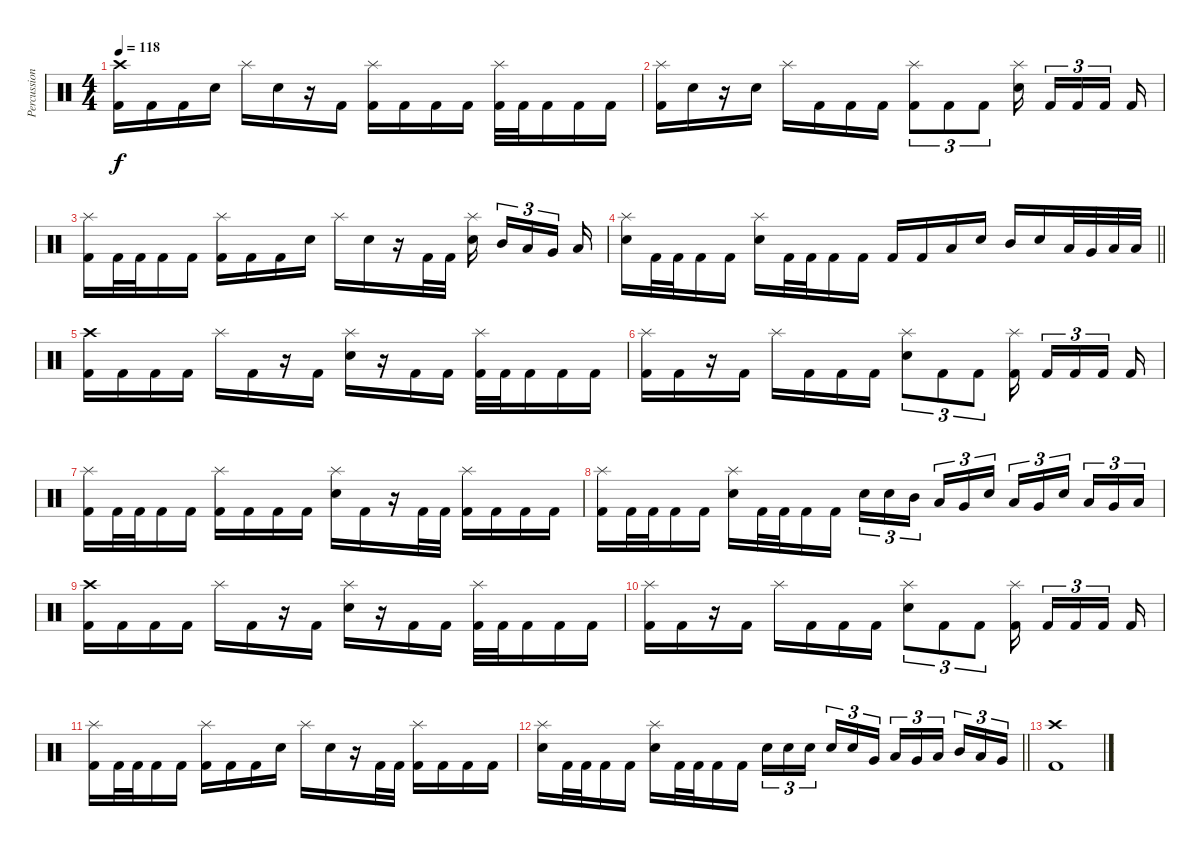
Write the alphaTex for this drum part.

\track ("Percussions" "Percussion") {instrument percussion}
\staff {score}
\articulation defaults
\ts (4 4)
\tempo 118
\clef neutral
\ks c
("Crash high (hit)" "Kick (hit) 2").16{dy f} "Kick (hit) 2".16 "Kick (hit) 2".16 "Electric Snare (hit)".16 "Splash (hit)".16 "Electric Snare (hit)".16 r.16 "Kick (hit) 2".16 ("Splash (hit)" "Kick (hit) 2").16 "Kick (hit) 2".16 "Kick (hit) 2".16 "Kick (hit) 2".16 ("Splash (hit)" "Kick (hit) 2").32 "Kick (hit) 2".32 "Kick (hit) 2".16 "Kick (hit) 2".16 "Kick (hit) 2".16 |
("Splash (hit)" "Kick (hit) 2").16 "Electric Snare (hit)".16 r.16 "Electric Snare (hit)".16 "Splash (hit)".16 "Kick (hit) 2".16 "Kick (hit) 2".16 "Kick (hit) 2".16 ("Splash (hit)" "Kick (hit) 2").8{tu (3 2)} "Kick (hit) 2".8{tu (3 2)} "Kick (hit) 2".8{tu (3 2)} ("Splash (hit)" "Electric Snare (hit)").16{beam splitsecondary} "Kick (hit) 2".16{tu (3 2)} "Kick (hit) 2".16{tu (3 2)} "Kick (hit) 2".16{tu (3 2) beam splitsecondary} "Kick (hit) 2".16 |
("Splash (hit)" "Kick (hit) 2").16 "Kick (hit) 2".32 "Kick (hit) 2".32 "Kick (hit) 2".16 "Kick (hit) 2".16 ("Splash (hit)" "Kick (hit) 2").16 "Kick (hit) 2".16 "Kick (hit) 2".16 "Electric Snare (hit)".16 "Splash (hit)".16 "Electric Snare (hit)".16 r.16 "Kick (hit) 2".32 "Kick (hit) 2".32 ("Splash (hit)" "Electric Snare (hit)").16{beam splitsecondary} "Mid Tom (hit)".16{tu (3 2)} "Low Tom (hit)".16{tu (3 2)} "Very Low Tom (hit)".16{tu (3 2) beam splitsecondary} "Low Floor Tom (hit)".16 |
\barLineRight lightlight
("Splash (hit)" "Electric Snare (hit)").16 "Kick (hit) 2".32 "Kick (hit) 2".32 "Kick (hit) 2".16 "Kick (hit) 2".16 ("Splash (hit)" "Electric Snare (hit)").16 "Kick (hit) 2".32 "Kick (hit) 2".32 "Kick (hit) 2".16 "Kick (hit) 2".16 "Kick (hit) 2".16 "Kick (hit) 2".16 "Low Tom (hit)".16 "Electric Snare (hit)".16 "Mid Tom (hit)".16 "Electric Snare (hit)".16 "Low Tom (hit)".32 "Very Low Tom (hit)".32 "Low Tom (hit)".32 "Low Floor Tom (hit)".32 |
\section ("" "")
("Crash high (hit)" "Kick (hit) 2").16 "Kick (hit) 2".16 "Kick (hit) 2".16 "Kick (hit) 2".16 "Splash (hit)".16 "Kick (hit) 2".16 r.16 "Kick (hit) 2".16 ("Splash (hit)" "Electric Snare (hit)").16 r.16 "Kick (hit) 2".16 "Kick (hit) 2".16 ("Splash (hit)" "Kick (hit) 2").32 "Kick (hit) 2".32 "Kick (hit) 2".16 "Kick (hit) 2".16 "Kick (hit) 2".16 |
("Splash (hit)" "Kick (hit) 2").16 "Kick (hit) 2".16 r.16 "Kick (hit) 2".16 "Splash (hit)".16 "Kick (hit) 2".16 "Kick (hit) 2".16 "Kick (hit) 2".16 ("Splash (hit)" "Electric Snare (hit)").8{tu (3 2)} "Kick (hit) 2".8{tu (3 2)} "Kick (hit) 2".8{tu (3 2)} ("Splash (hit)" "Kick (hit) 2").16{beam splitsecondary} "Kick (hit) 2".16{tu (3 2)} "Kick (hit) 2".16{tu (3 2)} "Kick (hit) 2".16{tu (3 2) beam splitsecondary} "Kick (hit) 2".16 |
("Splash (hit)" "Kick (hit) 2").16 "Kick (hit) 2".32 "Kick (hit) 2".32 "Kick (hit) 2".16 "Kick (hit) 2".16 ("Splash (hit)" "Kick (hit) 2").16 "Kick (hit) 2".16 "Kick (hit) 2".16 "Kick (hit) 2".16 ("Splash (hit)" "Electric Snare (hit)").16 "Kick (hit) 2".16 r.16 "Kick (hit) 2".32 "Kick (hit) 2".32 ("Splash (hit)" "Kick (hit) 2").16 "Kick (hit) 2".16 "Kick (hit) 2".16 "Kick (hit) 2".16 |
("Splash (hit)" "Kick (hit) 2").16 "Kick (hit) 2".32 "Kick (hit) 2".32 "Kick (hit) 2".16 "Kick (hit) 2".16 ("Splash (hit)" "Electric Snare (hit)").16 "Kick (hit) 2".32 "Kick (hit) 2".32 "Kick (hit) 2".16 "Kick (hit) 2".16 "Electric Snare (hit)".16{tu (3 2)} "Electric Snare (hit)".16{tu (3 2)} "Mid Tom (hit)".16{tu (3 2) beam splitsecondary} "Low Tom (hit)".16{tu (3 2)} "Very Low Tom (hit)".16{tu (3 2)} "Electric Snare (hit)".16{tu (3 2)} "Low Tom (hit)".16{tu (3 2)} "Very Low Tom (hit)".16{tu (3 2)} "Electric Snare (hit)".16{tu (3 2) beam splitsecondary} "Low Tom (hit)".16{tu (3 2)} "Very Low Tom (hit)".16{tu (3 2)} "Low Floor Tom (hit)".16{tu (3 2)} |
("Crash high (hit)" "Kick (hit) 2").16 "Kick (hit) 2".16 "Kick (hit) 2".16 "Kick (hit) 2".16 "Splash (hit)".16 "Kick (hit) 2".16 r.16 "Kick (hit) 2".16 ("Splash (hit)" "Electric Snare (hit)").16 r.16 "Kick (hit) 2".16 "Kick (hit) 2".16 ("Splash (hit)" "Kick (hit) 2").32 "Kick (hit) 2".32 "Kick (hit) 2".16 "Kick (hit) 2".16 "Kick (hit) 2".16 |
("Splash (hit)" "Kick (hit) 2").16 "Kick (hit) 2".16 r.16 "Kick (hit) 2".16 "Splash (hit)".16 "Kick (hit) 2".16 "Kick (hit) 2".16 "Kick (hit) 2".16 ("Splash (hit)" "Electric Snare (hit)").8{tu (3 2)} "Kick (hit) 2".8{tu (3 2)} "Kick (hit) 2".8{tu (3 2)} ("Splash (hit)" "Kick (hit) 2").16{beam splitsecondary} "Kick (hit) 2".16{tu (3 2)} "Kick (hit) 2".16{tu (3 2)} "Kick (hit) 2".16{tu (3 2) beam splitsecondary} "Kick (hit) 2".16 |
("Splash (hit)" "Kick (hit) 2").16 "Kick (hit) 2".32 "Kick (hit) 2".32 "Kick (hit) 2".16 "Kick (hit) 2".16 ("Splash (hit)" "Kick (hit) 2").16 "Kick (hit) 2".16 "Kick (hit) 2".16 "Electric Snare (hit)".16 "Splash (hit)".16 "Electric Snare (hit)".16 r.16 "Kick (hit) 2".32 "Kick (hit) 2".32 ("Splash (hit)" "Kick (hit) 2").16 "Kick (hit) 2".16 "Kick (hit) 2".16 "Kick (hit) 2".16 |
\barLineRight lightlight
("Splash (hit)" "Electric Snare (hit)").16 "Kick (hit) 2".32 "Kick (hit) 2".32 "Kick (hit) 2".16 "Kick (hit) 2".16 ("Splash (hit)" "Electric Snare (hit)").16 "Kick (hit) 2".32 "Kick (hit) 2".32 "Kick (hit) 2".16 "Kick (hit) 2".16 "Electric Snare (hit)".16{tu (3 2)} "Electric Snare (hit)".16{tu (3 2)} "Electric Snare (hit)".16{tu (3 2) beam splitsecondary} "Electric Snare (hit)".16{tu (3 2)} "Electric Snare (hit)".16{tu (3 2)} "Very Low Tom (hit)".16{tu (3 2)} "Low Tom (hit)".16{tu (3 2)} "Very Low Tom (hit)".16{tu (3 2)} "Low Floor Tom (hit)".16{tu (3 2) beam splitsecondary} "Mid Tom (hit)".16{tu (3 2)} "Low Tom (hit)".16{tu (3 2)} "Very Low Tom (hit)".16{tu (3 2)} |
\section ("" "")
("Crash high (hit)" "Kick (hit) 2").1
